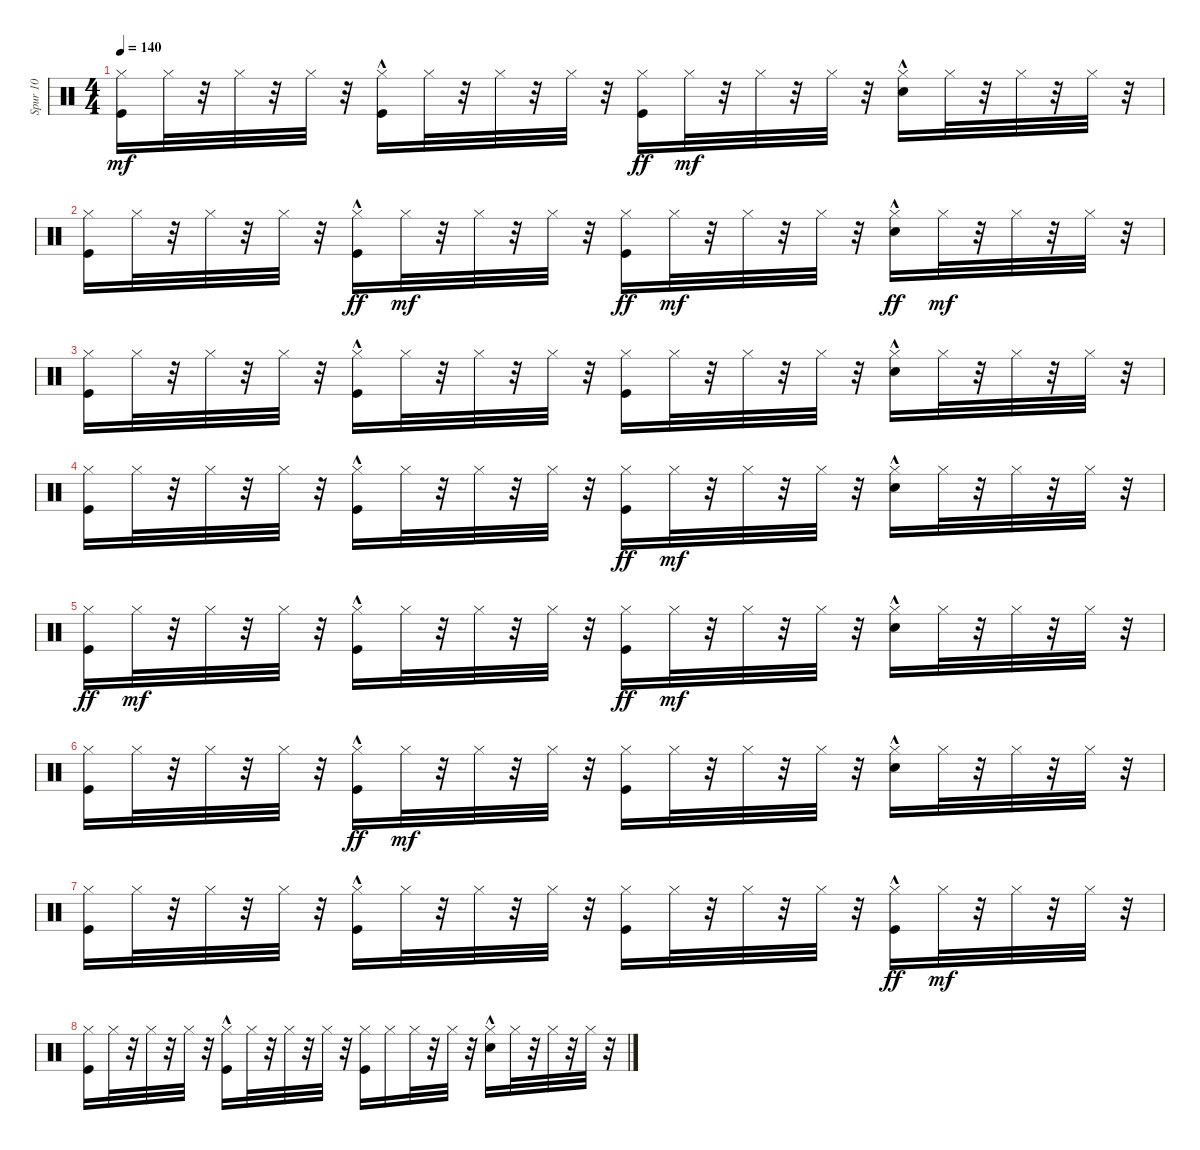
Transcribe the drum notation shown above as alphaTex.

\track ("Spur 10" "Spur 10") {instrument percussion}
\staff {score}
\articulation defaults
\ts (4 4)
\tempo 140
\clef neutral
\ks c
("Kick (hit)" "Hi-Hat (closed)").16{dy mf} "Hi-Hat (closed)".32 r.32 "Hi-Hat (closed)".32 r.32 "Hi-Hat (closed)".32 r.32 ("Kick (hit)"{hac} "Hi-Hat (closed)").16 "Hi-Hat (closed)".32 r.32 "Hi-Hat (closed)".32 r.32 "Hi-Hat (closed)".32 r.32 ("Hi-Hat (closed)" "Kick (hit)").16{dy ff} "Hi-Hat (closed)".32{dy mf} r.32 "Hi-Hat (closed)".32 r.32 "Hi-Hat (closed)".32 r.32 ("Snare (hit) 2"{hac} "Hi-Hat (closed)").16 "Hi-Hat (closed)".32 r.32 "Hi-Hat (closed)".32 r.32 "Hi-Hat (closed)".32 r.32 |
("Kick (hit)" "Hi-Hat (closed)").16 "Hi-Hat (closed)".32 r.32 "Hi-Hat (closed)".32 r.32 "Hi-Hat (closed)".32 r.32 ("Hi-Hat (closed)" "Kick (hit)"{hac}).16{dy ff} "Hi-Hat (closed)".32{dy mf} r.32 "Hi-Hat (closed)".32 r.32 "Hi-Hat (closed)".32 r.32 ("Hi-Hat (closed)" "Kick (hit)").16{dy ff} "Hi-Hat (closed)".32{dy mf} r.32 "Hi-Hat (closed)".32 r.32 "Hi-Hat (closed)".32 r.32 ("Hi-Hat (closed)" "Snare (hit) 2"{hac}).16{dy ff} "Hi-Hat (closed)".32{dy mf} r.32 "Hi-Hat (closed)".32 r.32 "Hi-Hat (closed)".32 r.32 |
("Kick (hit)" "Hi-Hat (closed)").16 "Hi-Hat (closed)".32 r.32 "Hi-Hat (closed)".32 r.32 "Hi-Hat (closed)".32 r.32 ("Kick (hit)"{hac} "Hi-Hat (closed)").16 "Hi-Hat (closed)".32 r.32 "Hi-Hat (closed)".32 r.32 "Hi-Hat (closed)".32 r.32 ("Kick (hit)" "Hi-Hat (closed)").16 "Hi-Hat (closed)".32 r.32 "Hi-Hat (closed)".32 r.32 "Hi-Hat (closed)".32 r.32 ("Snare (hit) 2"{hac} "Hi-Hat (closed)").16 "Hi-Hat (closed)".32 r.32 "Hi-Hat (closed)".32 r.32 "Hi-Hat (closed)".32 r.32 |
("Kick (hit)" "Hi-Hat (closed)").16 "Hi-Hat (closed)".32 r.32 "Hi-Hat (closed)".32 r.32 "Hi-Hat (closed)".32 r.32 ("Kick (hit)"{hac} "Hi-Hat (closed)").16 "Hi-Hat (closed)".32 r.32 "Hi-Hat (closed)".32 r.32 "Hi-Hat (closed)".32 r.32 ("Hi-Hat (closed)" "Kick (hit)").16{dy ff} "Hi-Hat (closed)".32{dy mf} r.32 "Hi-Hat (closed)".32 r.32 "Hi-Hat (closed)".32 r.32 ("Snare (hit) 2"{hac} "Hi-Hat (closed)").16 "Hi-Hat (closed)".32 r.32 "Hi-Hat (closed)".32 r.32 "Hi-Hat (closed)".32 r.32 |
("Hi-Hat (closed)" "Kick (hit)").16{dy ff} "Hi-Hat (closed)".32{dy mf} r.32 "Hi-Hat (closed)".32 r.32 "Hi-Hat (closed)".32 r.32 ("Kick (hit)"{hac} "Hi-Hat (closed)").16 "Hi-Hat (closed)".32 r.32 "Hi-Hat (closed)".32 r.32 "Hi-Hat (closed)".32 r.32 ("Hi-Hat (closed)" "Kick (hit)").16{dy ff} "Hi-Hat (closed)".32{dy mf} r.32 "Hi-Hat (closed)".32 r.32 "Hi-Hat (closed)".32 r.32 ("Snare (hit) 2"{hac} "Hi-Hat (closed)").16 "Hi-Hat (closed)".32 r.32 "Hi-Hat (closed)".32 r.32 "Hi-Hat (closed)".32 r.32 |
("Kick (hit)" "Hi-Hat (closed)").16 "Hi-Hat (closed)".32 r.32 "Hi-Hat (closed)".32 r.32 "Hi-Hat (closed)".32 r.32 ("Hi-Hat (closed)" "Kick (hit)"{hac}).16{dy ff} "Hi-Hat (closed)".32{dy mf} r.32 "Hi-Hat (closed)".32 r.32 "Hi-Hat (closed)".32 r.32 ("Kick (hit)" "Hi-Hat (closed)").16 "Hi-Hat (closed)".32 r.32 "Hi-Hat (closed)".32 r.32 "Hi-Hat (closed)".32 r.32 ("Snare (hit) 2"{hac} "Hi-Hat (closed)").16 "Hi-Hat (closed)".32 r.32 "Hi-Hat (closed)".32 r.32 "Hi-Hat (closed)".32 r.32 |
("Kick (hit)" "Hi-Hat (closed)").16 "Hi-Hat (closed)".32 r.32 "Hi-Hat (closed)".32 r.32 "Hi-Hat (closed)".32 r.32 ("Kick (hit)"{hac} "Hi-Hat (closed)").16 "Hi-Hat (closed)".32 r.32 "Hi-Hat (closed)".32 r.32 "Hi-Hat (closed)".32 r.32 ("Kick (hit)" "Hi-Hat (closed)").16 "Hi-Hat (closed)".32 r.32 "Hi-Hat (closed)".32 r.32 "Hi-Hat (closed)".32 r.32 ("Hi-Hat (closed)" "Kick (hit)"{hac}).16{dy ff} "Hi-Hat (closed)".32{dy mf} r.32 "Hi-Hat (closed)".32 r.32 "Hi-Hat (closed)".32 r.32 |
("Kick (hit)" "Hi-Hat (closed)").16 "Hi-Hat (closed)".32 r.32 "Hi-Hat (closed)".32 r.32 "Hi-Hat (closed)".32 r.32 ("Kick (hit)"{hac} "Hi-Hat (closed)").16 "Hi-Hat (closed)".32 r.32 "Hi-Hat (closed)".32 r.32 "Hi-Hat (closed)".32 r.32 ("Kick (hit)" "Hi-Hat (closed)").16 "Hi-Hat (closed)".16 "Hi-Hat (closed)".32 r.32 "Hi-Hat (closed)".32 r.32 ("Snare (hit) 2"{hac} "Hi-Hat (closed)").16 "Hi-Hat (closed)".32 r.32 "Hi-Hat (closed)".32 r.32 "Hi-Hat (closed)".32 r.32
